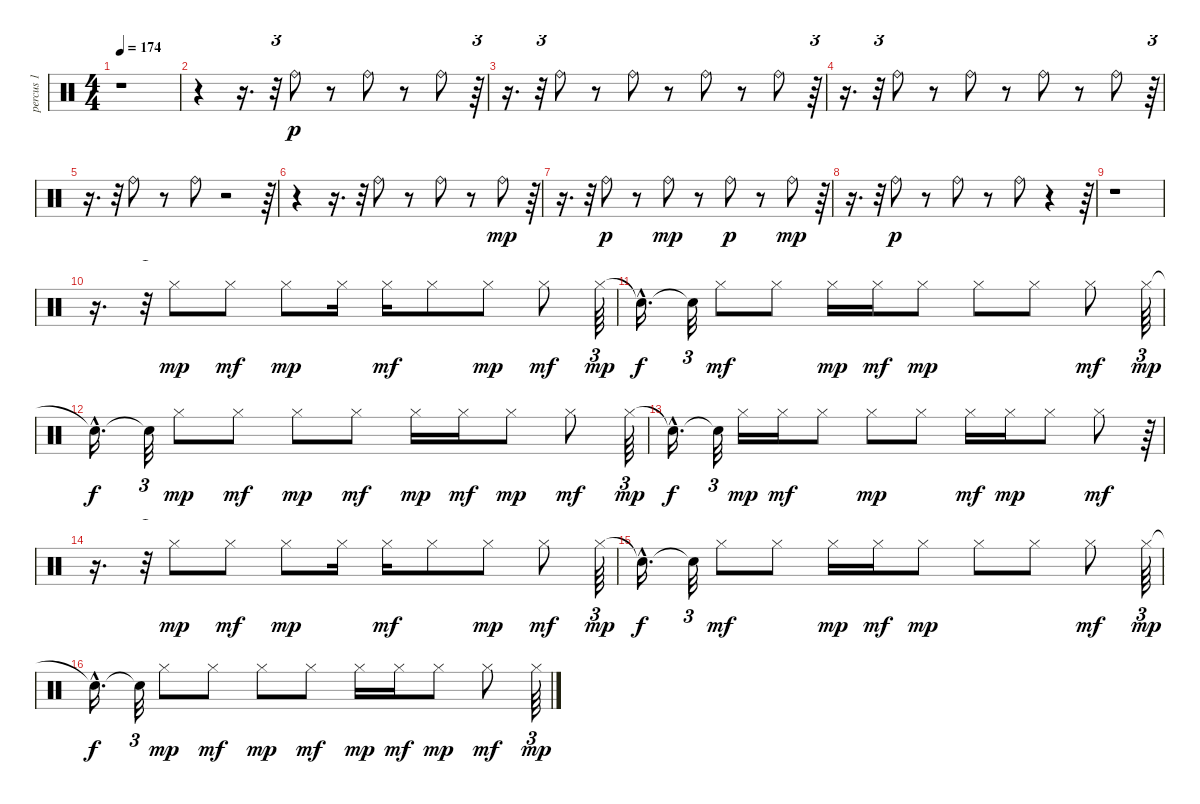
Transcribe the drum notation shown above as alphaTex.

\track ("percus 1" "percus 1") {instrument percussion}
\staff {score}
\articulation defaults
\ts (4 4)
\tempo 174
\clef neutral
\ks c
r.1{dy mp} |
r.4 r.16{d} r.32{tu (3 2)} "Ride (bell)".8{dy p} r.8 "Ride (bell)".8 r.8 "Ride (bell)".8 r.64{tu (3 2)} |
r.16{d} r.32{tu (3 2)} "Ride (bell)".8 r.8 "Ride (bell)".8 r.8 "Ride (bell)".8 r.8 "Ride (bell)".8 r.64{tu (3 2)} |
r.16{d} r.32{tu (3 2)} "Ride (bell)".8 r.8 "Ride (bell)".8 r.8 "Ride (bell)".8 r.8 "Ride (bell)".8 r.64{tu (3 2)} |
r.16{d} r.32{tu (3 2)} "Ride (bell)".8 r.8 "Ride (bell)".8 r.2 r.64{tu (3 2)} |
r.4 r.16{d} r.32{tu (3 2)} "Ride (bell)".8 r.8 "Ride (bell)".8 r.8 "Ride (bell)".8{dy mp} r.64{tu (3 2)} |
r.16{d} r.32{tu (3 2)} "Ride (bell)".8{dy p} r.8 "Ride (bell)".8{dy mp} r.8 "Ride (bell)".8{dy p} r.8 "Ride (bell)".8{dy mp} r.64{tu (3 2)} |
r.16{d} r.32{tu (3 2)} "Ride (bell)".8{dy p} r.8 "Ride (bell)".8 r.8 "Ride (bell)".8 r.4 r.64{tu (3 2)} |
r.1 |
r.16{d} r.32{tu (3 2)} "Hi-Hat (closed)".8{dy mp} "Hi-Hat (closed)".8{dy mf} "Hi-Hat (closed)".8{dy mp} "Hi-Hat (closed)".16 "Hi-Hat (closed)".16{dy mf} "Hi-Hat (closed)".8 "Hi-Hat (closed)".8{dy mp} "Hi-Hat (closed)".8{dy mf} "Hi-Hat (closed)".64{tu (3 2) dy mp} |
"Snare (hit)"{hac t}.16{d dy f} "Snare (hit)"{t}.32{tu (3 2)} "Hi-Hat (closed)".8{dy mf} "Hi-Hat (closed)".8 "Hi-Hat (closed)".16{dy mp} "Hi-Hat (closed)".16{dy mf} "Hi-Hat (closed)".8{dy mp} "Hi-Hat (closed)".8 "Hi-Hat (closed)".8 "Hi-Hat (closed)".8{dy mf} "Hi-Hat (closed)".64{tu (3 2) dy mp} |
"Snare (hit)"{hac t}.16{d dy f} "Snare (hit)"{t}.32{tu (3 2)} "Hi-Hat (closed)".8{dy mp} "Hi-Hat (closed)".8{dy mf} "Hi-Hat (closed)".8{dy mp} "Hi-Hat (closed)".8{dy mf} "Hi-Hat (closed)".16{dy mp} "Hi-Hat (closed)".16{dy mf} "Hi-Hat (closed)".8{dy mp} "Hi-Hat (closed)".8{dy mf} "Hi-Hat (closed)".64{tu (3 2) dy mp} |
"Snare (hit)"{hac t}.16{d dy f} "Snare (hit)"{t}.32{tu (3 2)} "Hi-Hat (closed)".16{dy mp} "Hi-Hat (closed)".16{dy mf} "Hi-Hat (closed)".8 "Hi-Hat (closed)".8{dy mp} "Hi-Hat (closed)".8 "Hi-Hat (closed)".16{dy mf} "Hi-Hat (closed)".16{dy mp} "Hi-Hat (closed)".8 "Hi-Hat (closed)".8{dy mf} r.64{tu (3 2)} |
r.16{d} r.32{tu (3 2)} "Hi-Hat (closed)".8{dy mp} "Hi-Hat (closed)".8{dy mf} "Hi-Hat (closed)".8{dy mp} "Hi-Hat (closed)".16 "Hi-Hat (closed)".16{dy mf} "Hi-Hat (closed)".8 "Hi-Hat (closed)".8{dy mp} "Hi-Hat (closed)".8{dy mf} "Hi-Hat (closed)".64{tu (3 2) dy mp} |
"Snare (hit)"{hac t}.16{d dy f} "Snare (hit)"{t}.32{tu (3 2)} "Hi-Hat (closed)".8{dy mf} "Hi-Hat (closed)".8 "Hi-Hat (closed)".16{dy mp} "Hi-Hat (closed)".16{dy mf} "Hi-Hat (closed)".8{dy mp} "Hi-Hat (closed)".8 "Hi-Hat (closed)".8 "Hi-Hat (closed)".8{dy mf} "Hi-Hat (closed)".64{tu (3 2) dy mp} |
"Snare (hit)"{hac t}.16{d dy f} "Snare (hit)"{t}.32{tu (3 2)} "Hi-Hat (closed)".8{dy mp} "Hi-Hat (closed)".8{dy mf} "Hi-Hat (closed)".8{dy mp} "Hi-Hat (closed)".8{dy mf} "Hi-Hat (closed)".16{dy mp} "Hi-Hat (closed)".16{dy mf} "Hi-Hat (closed)".8{dy mp} "Hi-Hat (closed)".8{dy mf} "Hi-Hat (closed)".64{tu (3 2) dy mp}
